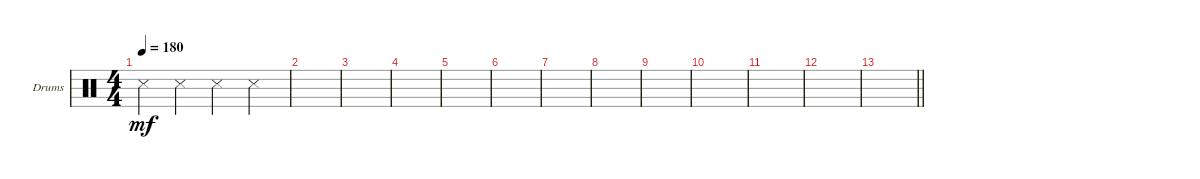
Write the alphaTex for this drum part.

\defaultSystemsLayout 4
\bracketExtendMode groupsimilarinstruments
\firstSystemTrackNameOrientation horizontal
\otherSystemsTrackNameOrientation horizontal
\track ("Drumkit" "Drums") {instrument percussion}
\staff {score}
\articulation defaults
\ts (4 4)
\tempo 180
\clef neutral
\scale
0.472222
\ks c "Snare (side stick) 3".4{dy mf} "Snare (side stick) 3".4 "Snare (side stick) 3".4 "Snare (side stick) 3".4
|
\scale
0.263889 |
\scale
0.263889 |
\scale
0.333333 |
\scale
0.333333 |
\scale
0.333333 |
\scale
0.333333 |
\scale
0.333333 |
\scale
0.333333 |
\scale
0.333333 |
\scale
0.333333 |
\scale
0.333333 |
\scale
0.333333
\barLineRight lightlight
|
\scale
0.333333 |
\scale
0.333333
